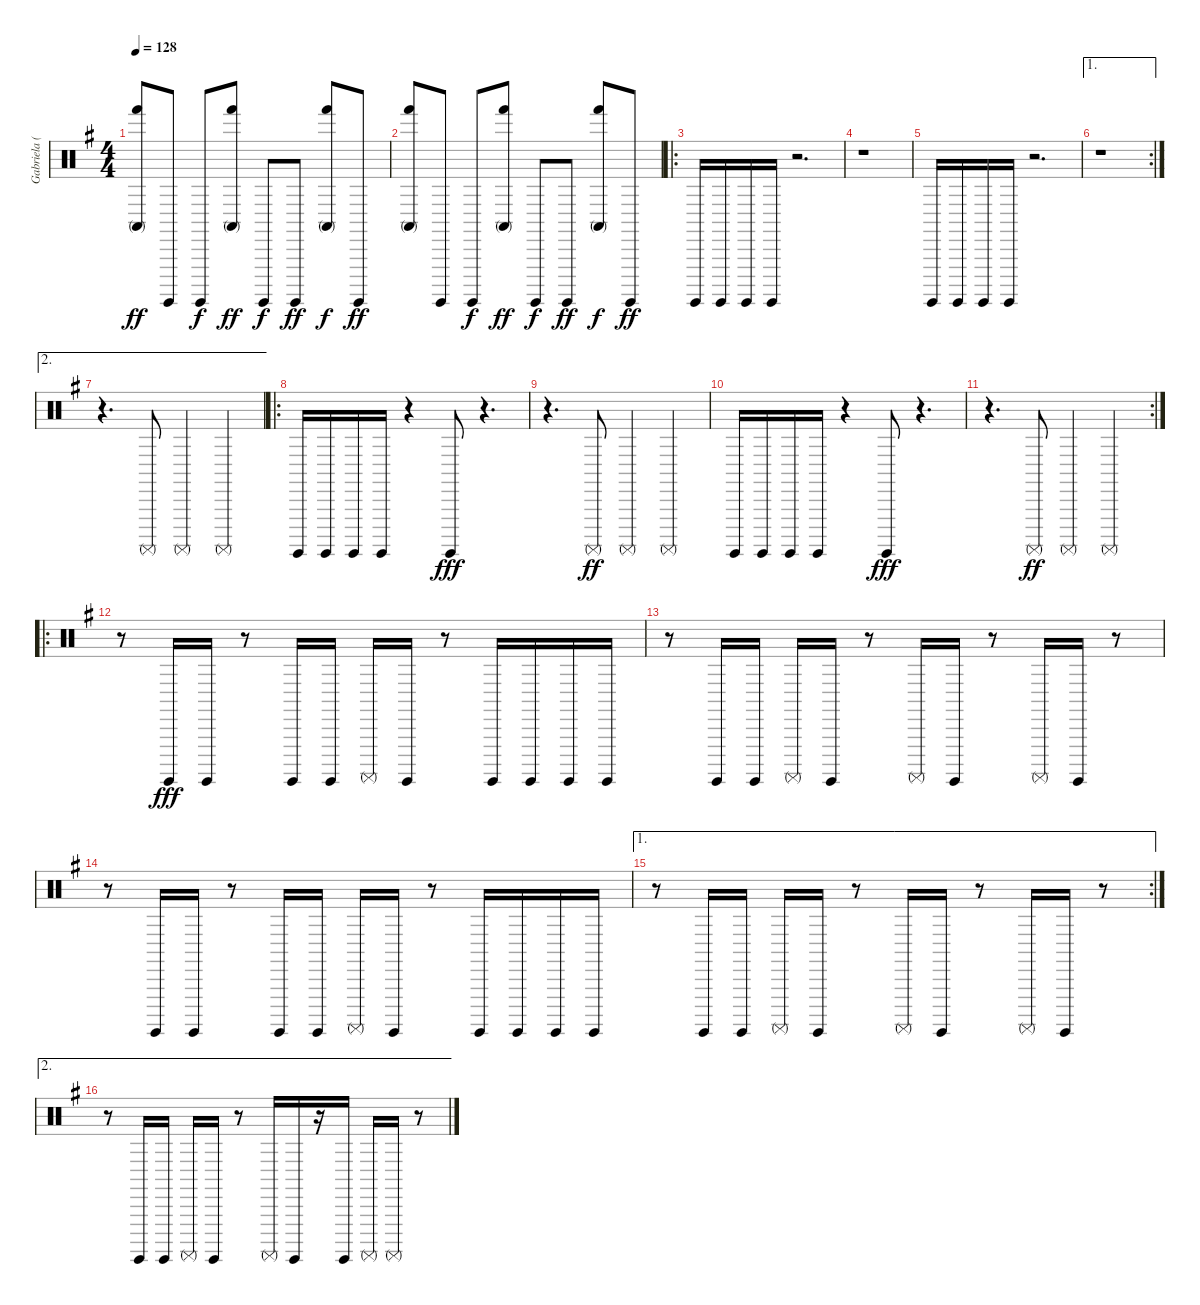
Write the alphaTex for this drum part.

\track ("Gabriela (Percussion)" "Gabriela (") {instrument percussion}
\staff {score}
\articulation defaults
\ts (4 4)
\tempo 128
\clef neutral
\ks eminor
("Conga high (mute)" "Hand (hit)").8{dy ff} "Surdo (hit)".8 "Surdo (hit)".8{dy f} ("Conga high (mute)" "Hand (hit)").8{dy ff} "Surdo (hit)".8{dy f} "Surdo (hit)".8{dy ff} ("Conga high (mute)" "Hand (hit)").8{dy f} "Surdo (hit)".8{dy ff} |
("Conga high (mute)" "Hand (hit)").8 "Surdo (hit)".8 "Surdo (hit)".8{dy f} ("Conga high (mute)" "Hand (hit)").8{dy ff} "Surdo (hit)".8{dy f} "Surdo (hit)".8{dy ff} ("Conga high (mute)" "Hand (hit)").8{dy f} "Surdo (hit)".8{dy ff} |
\ro "Surdo (hit)".16 "Surdo (hit)".16 "Surdo (hit)".16 "Surdo (hit)".16
r.2{d} |
r.1 |
"Surdo (hit)".16 "Surdo (hit)".16 "Surdo (hit)".16 "Surdo (hit)".16 r.2{d} |
\ae 1
\rc 2
r.1 |
\ae 2
r.4{d} "Surdo (mute)".8 "Surdo (mute)".4 "Surdo (mute)".4 |
\ro "Surdo (hit)".16 "Surdo (hit)".16 "Surdo (hit)".16 "Surdo (hit)".16
r.4 "Surdo (hit)".8{dy fff} r.4{d} |
r.4{d} "Surdo (mute)".8{dy ff} "Surdo (mute)".4 "Surdo (mute)".4 |
"Surdo (hit)".16 "Surdo (hit)".16 "Surdo (hit)".16 "Surdo (hit)".16 r.4 "Surdo (hit)".8{dy fff} r.4{d} |
\rc 2
r.4{d} "Surdo (mute)".8{dy ff} "Surdo (mute)".4 "Surdo (mute)".4 |
\ro
r.8 "Surdo (hit)".16{dy fff} "Surdo (hit)".16 r.8 "Surdo (hit)".16 "Surdo (hit)".16 "Surdo (mute)".16 "Surdo (hit)".16 r.8 "Surdo (hit)".16 "Surdo (hit)".16 "Surdo (hit)".16 "Surdo (hit)".16 |
r.8 "Surdo (hit)".16 "Surdo (hit)".16 "Surdo (mute)".16 "Surdo (hit)".16 r.8 "Surdo (mute)".16 "Surdo (hit)".16 r.8 "Surdo (mute)".16 "Surdo (hit)".16 r.8 |
r.8 "Surdo (hit)".16 "Surdo (hit)".16 r.8 "Surdo (hit)".16 "Surdo (hit)".16 "Surdo (mute)".16 "Surdo (hit)".16 r.8 "Surdo (hit)".16 "Surdo (hit)".16 "Surdo (hit)".16 "Surdo (hit)".16 |
\ae 1
\rc 2
r.8 "Surdo (hit)".16 "Surdo (hit)".16 "Surdo (mute)".16 "Surdo (hit)".16 r.8 "Surdo (mute)".16 "Surdo (hit)".16 r.8 "Surdo (mute)".16 "Surdo (hit)".16 r.8 |
\ae 2
r.8 "Surdo (hit)".16 "Surdo (hit)".16 "Surdo (mute)".16 "Surdo (hit)".16 r.8 "Surdo (mute)".16 "Surdo (hit)".16 r.16 "Surdo (hit)".16 "Surdo (mute)".16 "Surdo (mute)".16 r.8
